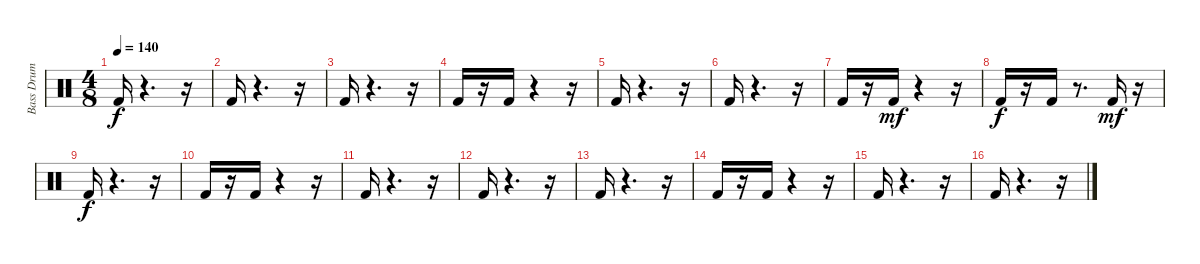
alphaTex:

\track ("Bass Drum" "Bass Drum") {instrument percussion}
\staff {score}
\articulation defaults
\ts (4 8)
\tempo 140
\clef neutral
\ks c "Kick (hit) 2".16{dy f}
r.4{d} r.16 |
"Kick (hit) 2".16 r.4{d} r.16 |
"Kick (hit) 2".16 r.4{d} r.16 |
"Kick (hit) 2".16 r.16 "Kick (hit) 2".16 r.4 r.16 |
"Kick (hit) 2".16 r.4{d} r.16 |
"Kick (hit) 2".16 r.4{d} r.16 |
"Kick (hit) 2".16 r.16 "Kick (hit) 2".16{dy mf} r.4 r.16 |
"Kick (hit) 2".16{dy f} r.16 "Kick (hit) 2".16 r.8{d} "Kick (hit) 2".16{dy mf} r.16 |
"Kick (hit) 2".16{dy f} r.4{d} r.16 |
"Kick (hit) 2".16 r.16 "Kick (hit) 2".16 r.4 r.16 |
"Kick (hit) 2".16 r.4{d} r.16 |
"Kick (hit) 2".16 r.4{d} r.16 |
"Kick (hit) 2".16 r.4{d} r.16 |
"Kick (hit) 2".16 r.16 "Kick (hit) 2".16 r.4 r.16 |
"Kick (hit) 2".16 r.4{d} r.16 |
"Kick (hit) 2".16 r.4{d} r.16
